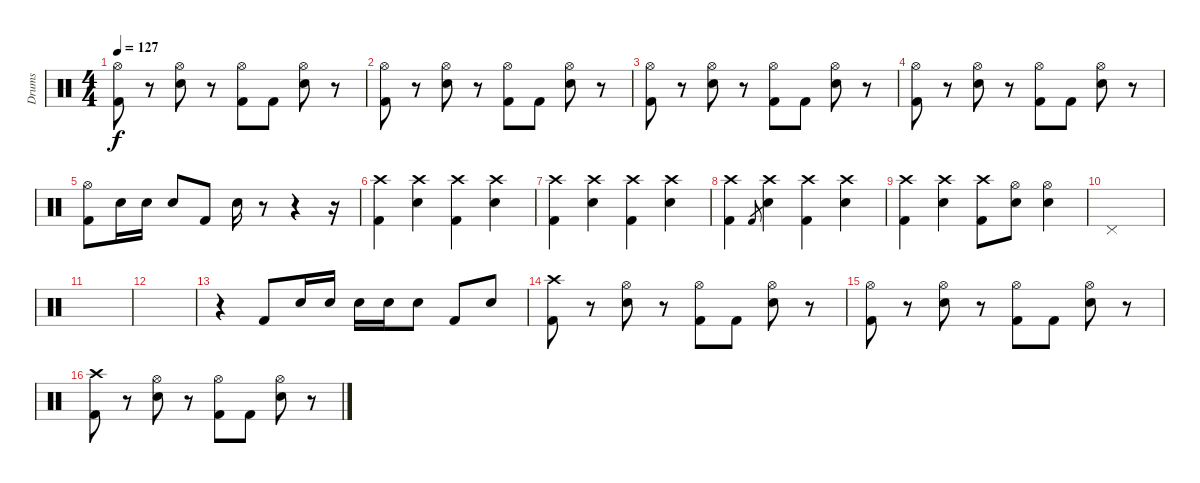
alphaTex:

\track ("Drums" "Drums") {instrument percussion}
\staff {score}
\articulation defaults
\ts (4 4)
\tempo 127
\clef neutral
\ks c
("Hi-Hat (open)" "Kick (hit) 2").8{dy f} r.8 ("Hi-Hat (open)" "Snare (hit) 2").8 r.8 ("Hi-Hat (open)" "Kick (hit) 2").8 "Kick (hit) 2".8 ("Hi-Hat (open)" "Snare (hit) 2").8 r.8 |
("Hi-Hat (open)" "Kick (hit) 2").8 r.8 ("Hi-Hat (open)" "Snare (hit) 2").8 r.8 ("Hi-Hat (open)" "Kick (hit) 2").8 "Kick (hit) 2".8 ("Hi-Hat (open)" "Snare (hit) 2").8 r.8 |
("Hi-Hat (open)" "Kick (hit) 2").8 r.8 ("Hi-Hat (open)" "Snare (hit) 2").8 r.8 ("Hi-Hat (open)" "Kick (hit) 2").8 "Kick (hit) 2".8 ("Hi-Hat (open)" "Snare (hit) 2").8 r.8 |
("Hi-Hat (open)" "Kick (hit) 2").8 r.8 ("Hi-Hat (open)" "Snare (hit) 2").8 r.8 ("Hi-Hat (open)" "Kick (hit) 2").8 "Kick (hit) 2".8 ("Hi-Hat (open)" "Snare (hit) 2").8 r.8 |
("Hi-Hat (open)" "Kick (hit) 2").8 "Snare (hit) 2".16 "Snare (hit) 2".16 "Snare (hit) 2".8 "Kick (hit) 2".8 "Snare (hit) 2".16 r.8 r.4 r.16 |
("Crash high (hit)" "Kick (hit) 2").4 ("Crash high (hit)" "Snare (hit) 2").4 ("Crash high (hit)" "Kick (hit) 2").4 ("Crash high (hit)" "Snare (hit) 2").4 |
("Crash high (hit)" "Kick (hit) 2").4 ("Crash high (hit)" "Snare (hit) 2").4 ("Crash high (hit)" "Kick (hit) 2").4 ("Crash high (hit)" "Snare (hit) 2").4 |
("Crash high (hit)" "Kick (hit) 2").4 "Kick (hit) 2".8{gr} ("Crash high (hit)" "Snare (hit) 2").4 ("Crash high (hit)" "Kick (hit) 2").4 ("Crash high (hit)" "Snare (hit) 2").4 |
("Crash high (hit)" "Kick (hit) 2").4 ("Crash high (hit)" "Snare (hit) 2").4 ("Crash high (hit)" "Kick (hit) 2").8 ("Hi-Hat (open)" "Snare (hit) 2").8 ("Hi-Hat (open)" "Snare (hit) 2").4 |
"Pedal Hi-Hat (hit)".1 |
|
|
r.4 "Kick (hit) 2".8 "Snare (hit) 2".16 "Snare (hit) 2".16 "Snare (hit) 2".16 "Snare (hit) 2".16 "Snare (hit) 2".8 "Kick (hit) 2".8 "Snare (hit) 2".8 |
("Crash high (hit)" "Kick (hit) 2").8 r.8 ("Hi-Hat (open)" "Snare (hit) 2").8 r.8 ("Hi-Hat (open)" "Kick (hit) 2").8 "Kick (hit) 2".8 ("Hi-Hat (open)" "Snare (hit) 2").8 r.8 |
("Hi-Hat (open)" "Kick (hit) 2").8 r.8 ("Hi-Hat (open)" "Snare (hit) 2").8 r.8 ("Hi-Hat (open)" "Kick (hit) 2").8 "Kick (hit) 2".8 ("Hi-Hat (open)" "Snare (hit) 2").8 r.8 |
("Crash high (hit)" "Kick (hit) 2").8 r.8 ("Hi-Hat (open)" "Snare (hit) 2").8 r.8 ("Hi-Hat (open)" "Kick (hit) 2").8 "Kick (hit) 2".8 ("Hi-Hat (open)" "Snare (hit) 2").8 r.8
